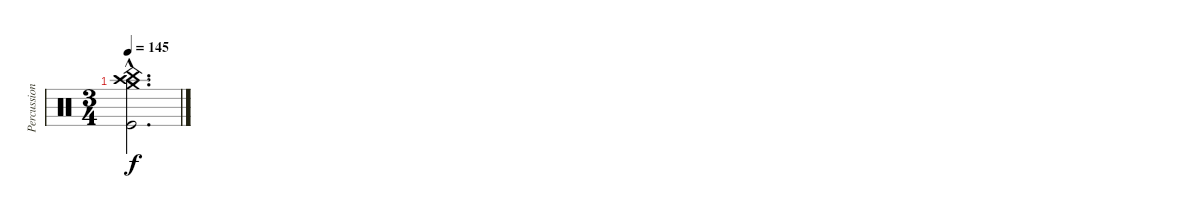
\track ("Percussion" "Percussion") {instrument percussion}
\staff {score}
\articulation defaults
\ts (3 4)
\tempo 145
\clef neutral
\ks c
("Crash medium (hit)"{hac} "China (hit)"{hac} "Crash high (hit)"{hac} "Kick (hit)"{hac}).2{d dy f}
